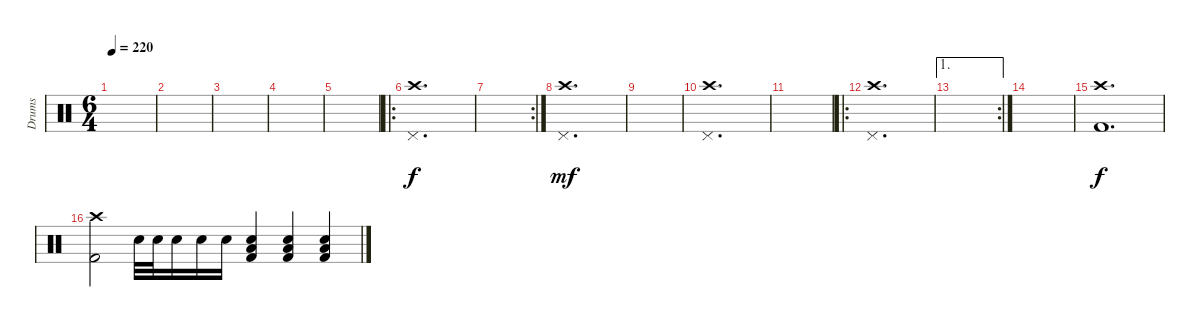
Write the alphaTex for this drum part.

\track ("Drums" "Drums") {instrument percussion}
\staff {score}
\articulation defaults
\ts (6 4)
\tempo 220
\clef neutral
\ks c
|
|
|
|
|
\ro
("Crash high (hit)" "Pedal Hi-Hat (hit)").1{d volume 14} |
\rc 2
|
("Crash high (hit)" "Pedal Hi-Hat (hit)").1{d dy mf} |
|
("Crash high (hit)" "Pedal Hi-Hat (hit)").1{d} |
|
\ro
("Crash high (hit)" "Pedal Hi-Hat (hit)").1{d} |
\ae 1
\rc 2
|
|
("Crash high (hit)" "Kick (hit) 2").1{d dy f} |
("Crash high (hit)" "Kick (hit) 2").2 "Electric Snare (hit)".32 "Electric Snare (hit)".32 "Electric Snare (hit)".16 "Electric Snare (hit)".16 "Electric Snare (hit)".16 ("Electric Snare (hit)" "Low Floor Tom (hit)" "Kick (hit) 2").4 ("Electric Snare (hit)" "Low Floor Tom (hit)" "Kick (hit) 2").4 ("Electric Snare (hit)" "Low Floor Tom (hit)" "Kick (hit) 2").4
